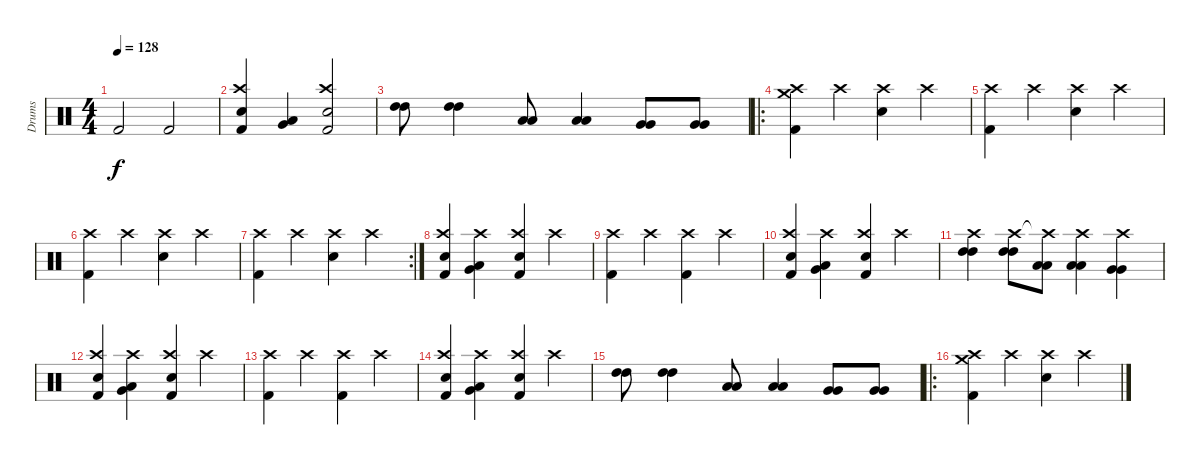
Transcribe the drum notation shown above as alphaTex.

\track ("Drums" "Drums") {instrument percussion}
\staff {score}
\articulation defaults
\ts (4 4)
\tempo 128
\clef neutral
\ks c "Kick (hit) 2".2{dy f} "Kick (hit) 2".2
|
("Crash high (hit)" "Electric Snare (hit)" "Kick (hit) 2").4 ("Very Low Tom (hit)" "Low Floor Tom (hit)").4 ("Crash high (hit)" "Electric Snare (hit)" "Kick (hit) 2").2 |
("High Tom (hit)" "High Tom (hit)").8 ("High Tom (hit)" "High Tom (hit)").4 ("Low Tom (hit)" "Low Tom (hit)").8 ("Low Tom (hit)" "Low Tom (hit)").4 ("Very Low Tom (hit)" "Very Low Tom (hit)").8 ("Very Low Tom (hit)" "Very Low Tom (hit)").8 |
\ro
("Crash high (hit)" "Crash medium (hit)" "Kick (hit) 2").4 "Crash high (hit)".4 ("Crash high (hit)" "Electric Snare (hit)").4 "Crash high (hit)".4 |
("Crash high (hit)" "Kick (hit) 2").4 "Crash high (hit)".4 ("Crash high (hit)" "Electric Snare (hit)").4 "Crash high (hit)".4 |
("Crash high (hit)" "Kick (hit) 2").4 "Crash high (hit)".4 ("Crash high (hit)" "Electric Snare (hit)").4 "Crash high (hit)".4 |
\rc 2
("Crash high (hit)" "Kick (hit) 2").4 "Crash high (hit)".4 ("Crash high (hit)" "Electric Snare (hit)").4 "Crash high (hit)".4 |
("Crash high (hit)" "Electric Snare (hit)" "Kick (hit) 2").4 ("Crash high (hit)" "Very Low Tom (hit)" "Low Floor Tom (hit)").4 ("Crash high (hit)" "Electric Snare (hit)" "Kick (hit) 2").4 "Crash high (hit)".4 |
("Crash high (hit)" "Kick (hit) 2").4 "Crash high (hit)".4 ("Crash high (hit)" "Kick (hit) 2").4 "Crash high (hit)".4 |
("Crash high (hit)" "Electric Snare (hit)" "Kick (hit) 2").4 ("Crash high (hit)" "Very Low Tom (hit)" "Low Floor Tom (hit)").4 ("Crash high (hit)" "Electric Snare (hit)" "Kick (hit) 2").4 "Crash high (hit)".4 |
("Crash high (hit)" "High Tom (hit)" "High Tom (hit)").4 ("Crash high (hit)" "High Tom (hit)" "High Tom (hit)").8 ("Crash high (hit)"{t} "Low Tom (hit)" "Low Tom (hit)").8 ("Crash high (hit)" "Low Tom (hit)" "Low Tom (hit)").4 ("Crash high (hit)" "Very Low Tom (hit)" "Very Low Tom (hit)").4 |
("Crash high (hit)" "Electric Snare (hit)" "Kick (hit) 2").4 ("Crash high (hit)" "Very Low Tom (hit)" "Low Floor Tom (hit)").4 ("Crash high (hit)" "Electric Snare (hit)" "Kick (hit) 2").4 "Crash high (hit)".4 |
("Crash high (hit)" "Kick (hit) 2").4 "Crash high (hit)".4 ("Crash high (hit)" "Kick (hit) 2").4 "Crash high (hit)".4 |
("Crash high (hit)" "Electric Snare (hit)" "Kick (hit) 2").4 ("Crash high (hit)" "Very Low Tom (hit)" "Low Floor Tom (hit)").4 ("Crash high (hit)" "Electric Snare (hit)" "Kick (hit) 2").4 "Crash high (hit)".4 |
("High Tom (hit)" "High Tom (hit)").8 ("High Tom (hit)" "High Tom (hit)").4 ("Low Tom (hit)" "Low Tom (hit)").8 ("Low Tom (hit)" "Low Tom (hit)").4 ("Very Low Tom (hit)" "Very Low Tom (hit)").8 ("Very Low Tom (hit)" "Very Low Tom (hit)").8 |
\ro
("Crash high (hit)" "Crash medium (hit)" "Kick (hit) 2").4 "Crash high (hit)".4 ("Crash high (hit)" "Electric Snare (hit)").4 "Crash high (hit)".4
